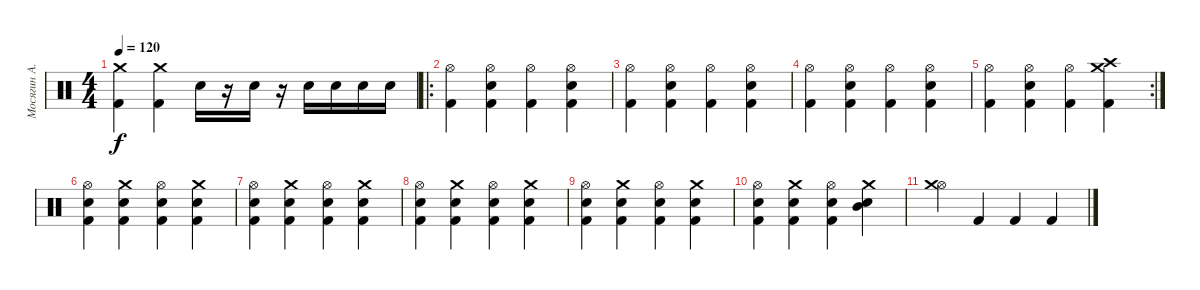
\track ("Мосягин А." "Мосягин А.") {instrument percussion}
\staff {score}
\articulation defaults
\ts (4 4)
\tempo 120
\clef neutral
\ks c
("Crash medium (hit)" "Kick (hit) 2").4{dy f} ("Crash medium (hit)" "Kick (hit) 2").4 "Snare (hit) 2".16 r.16 "Snare (hit) 2".16 r.16 "Snare (hit) 2".16 "Snare (hit) 2".16 "Snare (hit) 2".16 "Snare (hit) 2".16 |
\ro
("Hi-Hat (open)" "Kick (hit) 2").4 ("Hi-Hat (open)" "Snare (hit) 2" "Kick (hit) 2").4 ("Hi-Hat (open)" "Kick (hit) 2").4 ("Hi-Hat (open)" "Snare (hit) 2" "Kick (hit) 2").4 |
("Hi-Hat (open)" "Kick (hit) 2").4 ("Hi-Hat (open)" "Snare (hit) 2" "Kick (hit) 2").4 ("Hi-Hat (open)" "Kick (hit) 2").4 ("Hi-Hat (open)" "Snare (hit) 2" "Kick (hit) 2").4 |
("Hi-Hat (open)" "Kick (hit) 2").4 ("Hi-Hat (open)" "Snare (hit) 2" "Kick (hit) 2").4 ("Hi-Hat (open)" "Kick (hit) 2").4 ("Hi-Hat (open)" "Snare (hit) 2" "Kick (hit) 2").4 |
\rc 2
("Hi-Hat (open)" "Kick (hit) 2").4 ("Hi-Hat (open)" "Snare (hit) 2" "Kick (hit) 2").4 ("Hi-Hat (open)" "Kick (hit) 2").4 ("Crash high (hit)" "Crash medium (hit)" "Kick (hit) 2").4 |
("Hi-Hat (open)" "Snare (hit) 2" "Kick (hit) 2").4 ("Kick (hit) 2" "Crash medium (hit)" "Snare (hit) 2").4 ("Hi-Hat (open)" "Snare (hit) 2" "Kick (hit) 2").4 ("Kick (hit) 2" "Crash medium (hit)" "Snare (hit) 2").4 |
("Hi-Hat (open)" "Snare (hit) 2" "Kick (hit) 2").4 ("Kick (hit) 2" "Crash medium (hit)" "Snare (hit) 2").4 ("Hi-Hat (open)" "Snare (hit) 2" "Kick (hit) 2").4 ("Kick (hit) 2" "Crash medium (hit)" "Snare (hit) 2").4 |
("Hi-Hat (open)" "Snare (hit) 2" "Kick (hit) 2").4 ("Kick (hit) 2" "Crash medium (hit)" "Snare (hit) 2").4 ("Hi-Hat (open)" "Snare (hit) 2" "Kick (hit) 2").4 ("Kick (hit) 2" "Crash medium (hit)" "Snare (hit) 2").4 |
("Hi-Hat (open)" "Snare (hit) 2" "Kick (hit) 2").4 ("Kick (hit) 2" "Crash medium (hit)" "Snare (hit) 2").4 ("Hi-Hat (open)" "Snare (hit) 2" "Kick (hit) 2").4 ("Kick (hit) 2" "Crash medium (hit)" "Snare (hit) 2").4 |
("Hi-Hat (open)" "Snare (hit) 2" "Kick (hit) 2").4 ("Kick (hit) 2" "Crash medium (hit)" "Snare (hit) 2").4 ("Hi-Hat (open)" "Snare (hit) 2" "Kick (hit) 2").4 ("Mid Tom (hit)" "Crash medium (hit)" "Snare (hit) 2").4 |
("Hi-Hat (open)" "Crash medium (hit)").4 "Kick (hit) 2".4 "Kick (hit) 2".4 "Kick (hit) 2".4
